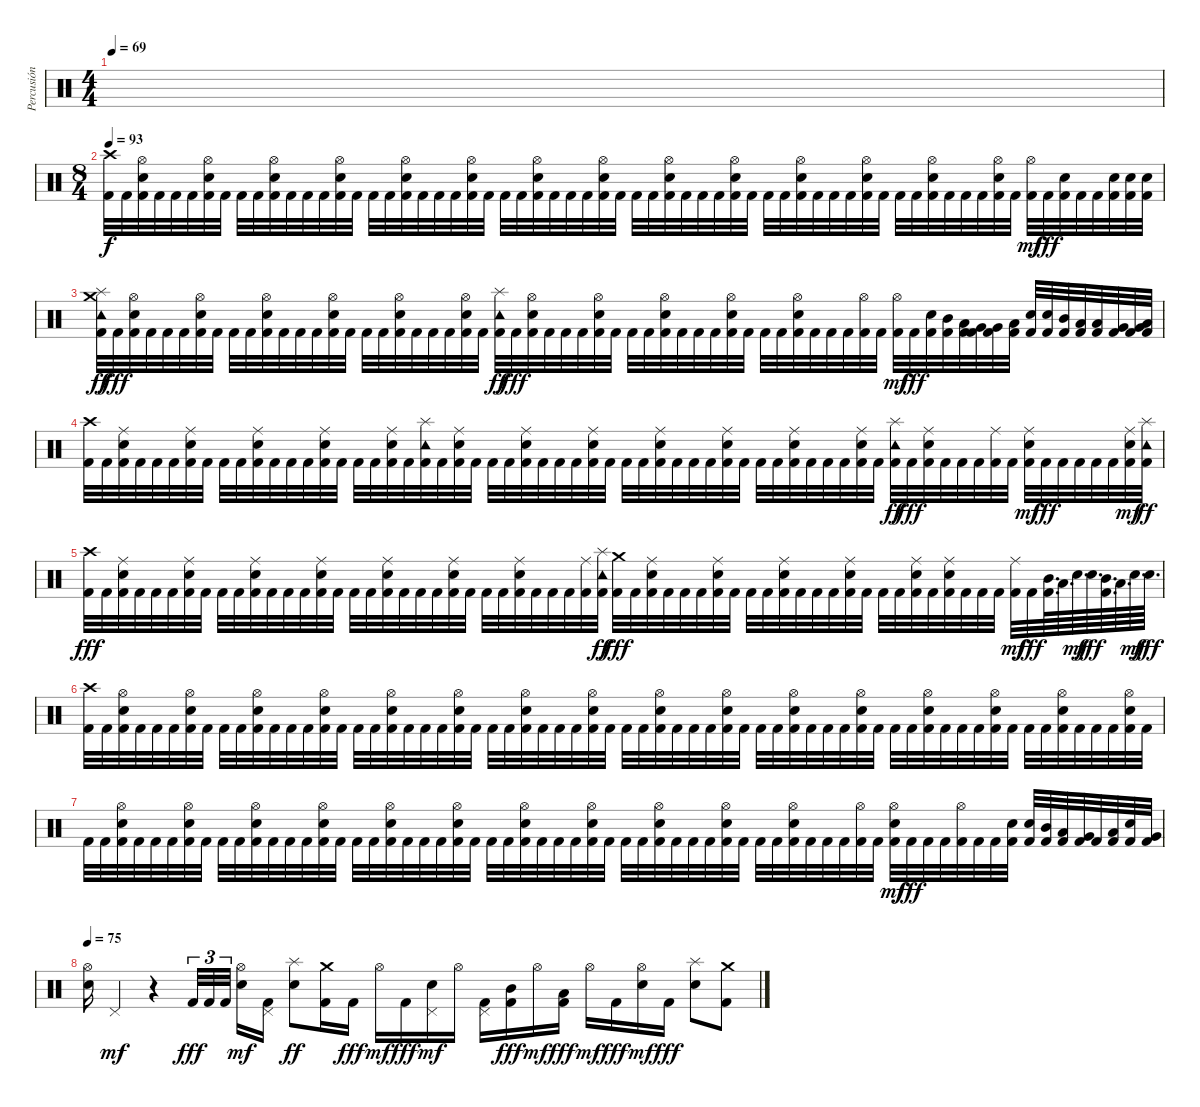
\track ("Percusión" "Percusión") {instrument percussion}
\staff {score}
\articulation defaults
\ts (4 4)
\tempo 69
\clef neutral
\ks c
|
\ts (8 4)
\tempo 93
("Kick (hit) 2" "Crash high (hit)").32 "Kick (hit) 2".32 ("Kick (hit) 2" "Electric Snare (hit)" "Hi-Hat (open)").32 "Kick (hit) 2".32 "Kick (hit) 2".32 "Kick (hit) 2".32 ("Kick (hit) 2" "Electric Snare (hit)" "Hi-Hat (open)").32 "Kick (hit) 2".32 "Kick (hit) 2".32 "Kick (hit) 2".32 ("Kick (hit) 2" "Electric Snare (hit)" "Hi-Hat (open)").32 "Kick (hit) 2".32 "Kick (hit) 2".32 "Kick (hit) 2".32 ("Kick (hit) 2" "Electric Snare (hit)" "Hi-Hat (open)").32 "Kick (hit) 2".32 "Kick (hit) 2".32 "Kick (hit) 2".32 ("Kick (hit) 2" "Electric Snare (hit)" "Hi-Hat (open)").32 "Kick (hit) 2".32 "Kick (hit) 2".32 "Kick (hit) 2".32 ("Kick (hit) 2" "Electric Snare (hit)" "Hi-Hat (open)").32 "Kick (hit) 2".32 "Kick (hit) 2".32 "Kick (hit) 2".32 ("Kick (hit) 2" "Electric Snare (hit)" "Hi-Hat (open)").32 "Kick (hit) 2".32 "Kick (hit) 2".32 "Kick (hit) 2".32 ("Kick (hit) 2" "Electric Snare (hit)" "Hi-Hat (open)").32 "Kick (hit) 2".32 "Kick (hit) 2".32 "Kick (hit) 2".32 ("Kick (hit) 2" "Electric Snare (hit)" "Hi-Hat (open)").32 "Kick (hit) 2".32 "Kick (hit) 2".32 "Kick (hit) 2".32 ("Kick (hit) 2" "Electric Snare (hit)" "Hi-Hat (open)").32 "Kick (hit) 2".32 "Kick (hit) 2".32 "Kick (hit) 2".32 ("Kick (hit) 2" "Electric Snare (hit)" "Hi-Hat (open)").32 "Kick (hit) 2".32 "Kick (hit) 2".32 "Kick (hit) 2".32 ("Kick (hit) 2" "Electric Snare (hit)" "Hi-Hat (open)").32 "Kick (hit) 2".32 "Kick (hit) 2".32 "Kick (hit) 2".32 ("Kick (hit) 2" "Electric Snare (hit)" "Hi-Hat (open)").32 "Kick (hit) 2".32 "Kick (hit) 2".32 "Kick (hit) 2".32 ("Kick (hit) 2" "Electric Snare (hit)" "Hi-Hat (open)").32 "Kick (hit) 2".32 ("Kick (hit) 2" "Hi-Hat (open)").32{dy mf} "Kick (hit) 2".32{dy fff} ("Kick (hit) 2" "Electric Snare (hit)").32 "Kick (hit) 2".32 "Kick (hit) 2".32 ("Kick (hit) 2" "Electric Snare (hit)").32 ("Kick (hit) 2" "Electric Snare (hit)").32 ("Kick (hit) 2" "Electric Snare (hit)").32 |
("Kick (hit) 2" "Crash medium (hit)" "Splash (hit)" "Tambourine (hit)").32{dy ff} "Kick (hit) 2".32{dy fff} ("Kick (hit) 2" "Electric Snare (hit)" "Hi-Hat (open)").32 "Kick (hit) 2".32 "Kick (hit) 2".32 "Kick (hit) 2".32 ("Kick (hit) 2" "Electric Snare (hit)" "Hi-Hat (open)").32 "Kick (hit) 2".32 "Kick (hit) 2".32 "Kick (hit) 2".32 ("Kick (hit) 2" "Electric Snare (hit)" "Hi-Hat (open)").32 "Kick (hit) 2".32 "Kick (hit) 2".32 "Kick (hit) 2".32 ("Kick (hit) 2" "Electric Snare (hit)" "Hi-Hat (open)").32 "Kick (hit) 2".32 "Kick (hit) 2".32 "Kick (hit) 2".32 ("Kick (hit) 2" "Electric Snare (hit)" "Hi-Hat (open)").32 "Kick (hit) 2".32 "Kick (hit) 2".32 "Kick (hit) 2".32 ("Kick (hit) 2" "Electric Snare (hit)" "Hi-Hat (open)").32 "Kick (hit) 2".32 ("Kick (hit) 2" "Splash (hit)" "Tambourine (hit)").32{dy ff} "Kick (hit) 2".32{dy fff} ("Kick (hit) 2" "Electric Snare (hit)" "Hi-Hat (open)").32 "Kick (hit) 2".32 "Kick (hit) 2".32 "Kick (hit) 2".32 ("Kick (hit) 2" "Electric Snare (hit)" "Hi-Hat (open)").32 "Kick (hit) 2".32 "Kick (hit) 2".32 "Kick (hit) 2".32 ("Kick (hit) 2" "Electric Snare (hit)" "Hi-Hat (open)").32 "Kick (hit) 2".32 "Kick (hit) 2".32 "Kick (hit) 2".32 ("Kick (hit) 2" "Electric Snare (hit)" "Hi-Hat (open)").32 "Kick (hit) 2".32 "Kick (hit) 2".32 "Kick (hit) 2".32 ("Kick (hit) 2" "Electric Snare (hit)" "Hi-Hat (open)").32 "Kick (hit) 2".32 "Kick (hit) 2".32 "Kick (hit) 2".32 ("Kick (hit) 2" "Hi-Hat (open)").32 "Kick (hit) 2".32 ("Kick (hit) 2" "Hi-Hat (open)").32{dy mf} "Kick (hit) 2".32{dy fff} ("Kick (hit) 2" "Electric Snare (hit)").32 ("Kick (hit) 2" "Mid Tom (hit)").32 ("Kick (hit) 2" "Low Tom (hit)").32 ("Kick (hit) 2" "Very Low Tom (hit)").32 ("Kick (hit) 2" "Very Low Tom (hit)").32 ("Kick (hit) 2" "Low Floor Tom (hit)").32 ("Kick (hit) 2" "Electric Snare (hit)").32 ("Kick (hit) 2" "Electric Snare (hit)").32 ("Kick (hit) 2" "Mid Tom (hit)").32 ("Kick (hit) 2" "Low Tom (hit)").32 ("Kick (hit) 2" "Low Tom (hit)").32 ("Kick (hit) 2" "Very Low Tom (hit)").32 ("Kick (hit) 2" "Very Low Tom (hit)").32 ("Kick (hit) 2" "Low Floor Tom (hit)").32 |
("Kick (hit) 2" "Crash high (hit)").32 "Kick (hit) 2".32 ("Kick (hit) 2" "Electric Snare (hit)" "Ride (middle)").32 "Kick (hit) 2".32 "Kick (hit) 2".32 "Kick (hit) 2".32 ("Kick (hit) 2" "Electric Snare (hit)" "Ride (middle)").32 "Kick (hit) 2".32 "Kick (hit) 2".32 "Kick (hit) 2".32 ("Kick (hit) 2" "Electric Snare (hit)" "Ride (middle)").32 "Kick (hit) 2".32 "Kick (hit) 2".32 "Kick (hit) 2".32 ("Kick (hit) 2" "Electric Snare (hit)" "Ride (middle)").32 "Kick (hit) 2".32 "Kick (hit) 2".32 "Kick (hit) 2".32 ("Kick (hit) 2" "Electric Snare (hit)" "Ride (middle)").32 "Kick (hit) 2".32 ("Kick (hit) 2" "Splash (hit)" "Tambourine (hit)").32 "Kick (hit) 2".32 ("Kick (hit) 2" "Electric Snare (hit)" "Ride (middle)").32 "Kick (hit) 2".32 "Kick (hit) 2".32 "Kick (hit) 2".32 ("Kick (hit) 2" "Electric Snare (hit)" "Ride (middle)").32 "Kick (hit) 2".32 "Kick (hit) 2".32 "Kick (hit) 2".32 ("Kick (hit) 2" "Electric Snare (hit)" "Ride (middle)").32 "Kick (hit) 2".32 "Kick (hit) 2".32 "Kick (hit) 2".32 ("Kick (hit) 2" "Electric Snare (hit)" "Ride (middle)").32 "Kick (hit) 2".32 "Kick (hit) 2".32 "Kick (hit) 2".32 ("Kick (hit) 2" "Electric Snare (hit)" "Ride (middle)").32 "Kick (hit) 2".32 "Kick (hit) 2".32 "Kick (hit) 2".32 ("Kick (hit) 2" "Electric Snare (hit)" "Ride (middle)").32 "Kick (hit) 2".32 "Kick (hit) 2".32 "Kick (hit) 2".32 ("Kick (hit) 2" "Electric Snare (hit)" "Ride (middle)").32 "Kick (hit) 2".32 ("Kick (hit) 2" "Splash (hit)" "Tambourine (hit)").32{dy ff} "Kick (hit) 2".32{dy fff} ("Kick (hit) 2" "Electric Snare (hit)" "Ride (middle)").32 "Kick (hit) 2".32 "Kick (hit) 2".32 "Kick (hit) 2".32 ("Kick (hit) 2" "Ride (middle)").32 "Kick (hit) 2".32 ("Kick (hit) 2" "Electric Snare (hit)" "Ride (middle)").32{dy mf} "Kick (hit) 2".32{dy fff} "Kick (hit) 2".32 "Kick (hit) 2".32 "Kick (hit) 2".32 "Kick (hit) 2".32 ("Kick (hit) 2" "Electric Snare (hit)" "Ride (middle)").32{dy mf} ("Kick (hit) 2" "Splash (hit)" "Tambourine (hit)").32{dy ff} |
("Kick (hit) 2" "Crash high (hit)").32{dy fff} "Kick (hit) 2".32 ("Kick (hit) 2" "Electric Snare (hit)" "Ride (middle)").32 "Kick (hit) 2".32 "Kick (hit) 2".32 "Kick (hit) 2".32 ("Kick (hit) 2" "Electric Snare (hit)" "Ride (middle)").32 "Kick (hit) 2".32 "Kick (hit) 2".32 "Kick (hit) 2".32 ("Kick (hit) 2" "Electric Snare (hit)" "Ride (middle)").32 "Kick (hit) 2".32 "Kick (hit) 2".32 "Kick (hit) 2".32 ("Kick (hit) 2" "Electric Snare (hit)" "Ride (middle)").32 "Kick (hit) 2".32 "Kick (hit) 2".32 "Kick (hit) 2".32 ("Kick (hit) 2" "Electric Snare (hit)" "Ride (middle)").32 "Kick (hit) 2".32 "Kick (hit) 2".32 "Kick (hit) 2".32 ("Kick (hit) 2" "Electric Snare (hit)" "Ride (middle)").32 "Kick (hit) 2".32 "Kick (hit) 2".32 "Kick (hit) 2".32 ("Kick (hit) 2" "Electric Snare (hit)" "Ride (middle)").32 "Kick (hit) 2".32 "Kick (hit) 2".32 "Kick (hit) 2".32 ("Kick (hit) 2" "Ride (middle)").32 ("Kick (hit) 2" "Splash (hit)" "Tambourine (hit)").32{dy ff} ("Kick (hit) 2" "Crash medium (hit)").32{dy fff} "Kick (hit) 2".32 ("Kick (hit) 2" "Electric Snare (hit)" "Ride (middle)").32 "Kick (hit) 2".32 "Kick (hit) 2".32 "Kick (hit) 2".32 ("Kick (hit) 2" "Electric Snare (hit)" "Ride (middle)").32 "Kick (hit) 2".32 "Kick (hit) 2".32 "Kick (hit) 2".32 ("Kick (hit) 2" "Electric Snare (hit)" "Ride (middle)").32 "Kick (hit) 2".32 "Kick (hit) 2".32 "Kick (hit) 2".32 ("Kick (hit) 2" "Electric Snare (hit)" "Ride (middle)").32 "Kick (hit) 2".32 "Kick (hit) 2".32 "Kick (hit) 2".32 ("Kick (hit) 2" "Electric Snare (hit)" "Ride (middle)").32 "Kick (hit) 2".32 ("Kick (hit) 2" "Electric Snare (hit)" "Ride (middle)").32 "Kick (hit) 2".32 "Kick (hit) 2".32 "Kick (hit) 2".32 ("Kick (hit) 2" "Ride (middle)").32{dy mf} "Kick (hit) 2".32{dy fff} ("Kick (hit) 2" "Mid Tom (hit)").64{d} "Low Tom (hit)".64{d} "Electric Snare (hit)".64{d dy mf} "Electric Snare (hit)".64{d dy fff} ("Kick (hit) 2" "Mid Tom (hit)").64{d} "Low Tom (hit)".64{d} "Electric Snare (hit)".64{d dy mf} "Electric Snare (hit)".64{d dy fff} |
("Kick (hit) 2" "Crash high (hit)").32 "Kick (hit) 2".32 ("Kick (hit) 2" "Electric Snare (hit)" "Hi-Hat (open)").32 "Kick (hit) 2".32 "Kick (hit) 2".32 "Kick (hit) 2".32 ("Kick (hit) 2" "Electric Snare (hit)" "Hi-Hat (open)").32 "Kick (hit) 2".32 "Kick (hit) 2".32 "Kick (hit) 2".32 ("Kick (hit) 2" "Electric Snare (hit)" "Hi-Hat (open)").32 "Kick (hit) 2".32 "Kick (hit) 2".32 "Kick (hit) 2".32 ("Kick (hit) 2" "Electric Snare (hit)" "Hi-Hat (open)").32 "Kick (hit) 2".32 "Kick (hit) 2".32 "Kick (hit) 2".32 ("Kick (hit) 2" "Electric Snare (hit)" "Hi-Hat (open)").32 "Kick (hit) 2".32 "Kick (hit) 2".32 "Kick (hit) 2".32 ("Kick (hit) 2" "Electric Snare (hit)" "Hi-Hat (open)").32 "Kick (hit) 2".32 "Kick (hit) 2".32 "Kick (hit) 2".32 ("Kick (hit) 2" "Electric Snare (hit)" "Hi-Hat (open)").32 "Kick (hit) 2".32 "Kick (hit) 2".32 "Kick (hit) 2".32 ("Kick (hit) 2" "Electric Snare (hit)" "Hi-Hat (open)").32 "Kick (hit) 2".32 "Kick (hit) 2".32 "Kick (hit) 2".32 ("Kick (hit) 2" "Electric Snare (hit)" "Hi-Hat (open)").32 "Kick (hit) 2".32 "Kick (hit) 2".32 "Kick (hit) 2".32 ("Kick (hit) 2" "Electric Snare (hit)" "Hi-Hat (open)").32 "Kick (hit) 2".32 "Kick (hit) 2".32 "Kick (hit) 2".32 ("Kick (hit) 2" "Electric Snare (hit)" "Hi-Hat (open)").32 "Kick (hit) 2".32 "Kick (hit) 2".32 "Kick (hit) 2".32 ("Kick (hit) 2" "Electric Snare (hit)" "Hi-Hat (open)").32 "Kick (hit) 2".32 "Kick (hit) 2".32 "Kick (hit) 2".32 ("Kick (hit) 2" "Electric Snare (hit)" "Hi-Hat (open)").32 "Kick (hit) 2".32 "Kick (hit) 2".32 "Kick (hit) 2".32 ("Kick (hit) 2" "Electric Snare (hit)" "Hi-Hat (open)").32 "Kick (hit) 2".32 "Kick (hit) 2".32 "Kick (hit) 2".32 ("Kick (hit) 2" "Electric Snare (hit)" "Hi-Hat (open)").32 "Kick (hit) 2".32 "Kick (hit) 2".32 "Kick (hit) 2".32 ("Kick (hit) 2" "Electric Snare (hit)" "Hi-Hat (open)").32 "Kick (hit) 2".32 |
"Kick (hit) 2".32 "Kick (hit) 2".32 ("Kick (hit) 2" "Electric Snare (hit)" "Hi-Hat (open)").32 "Kick (hit) 2".32 "Kick (hit) 2".32 "Kick (hit) 2".32 ("Kick (hit) 2" "Electric Snare (hit)" "Hi-Hat (open)").32 "Kick (hit) 2".32 "Kick (hit) 2".32 "Kick (hit) 2".32 ("Kick (hit) 2" "Electric Snare (hit)" "Hi-Hat (open)").32 "Kick (hit) 2".32 "Kick (hit) 2".32 "Kick (hit) 2".32 ("Kick (hit) 2" "Electric Snare (hit)" "Hi-Hat (open)").32 "Kick (hit) 2".32 "Kick (hit) 2".32 "Kick (hit) 2".32 ("Kick (hit) 2" "Electric Snare (hit)" "Hi-Hat (open)").32 "Kick (hit) 2".32 "Kick (hit) 2".32 "Kick (hit) 2".32 ("Kick (hit) 2" "Electric Snare (hit)" "Hi-Hat (open)").32 "Kick (hit) 2".32 "Kick (hit) 2".32 "Kick (hit) 2".32 ("Kick (hit) 2" "Electric Snare (hit)" "Hi-Hat (open)").32 "Kick (hit) 2".32 "Kick (hit) 2".32 "Kick (hit) 2".32 ("Kick (hit) 2" "Electric Snare (hit)" "Hi-Hat (open)").32 "Kick (hit) 2".32 "Kick (hit) 2".32 "Kick (hit) 2".32 ("Kick (hit) 2" "Electric Snare (hit)" "Hi-Hat (open)").32 "Kick (hit) 2".32 "Kick (hit) 2".32 "Kick (hit) 2".32 ("Kick (hit) 2" "Electric Snare (hit)" "Hi-Hat (open)").32 "Kick (hit) 2".32 "Kick (hit) 2".32 "Kick (hit) 2".32 ("Kick (hit) 2" "Electric Snare (hit)" "Hi-Hat (open)").32 "Kick (hit) 2".32 "Kick (hit) 2".32 "Kick (hit) 2".32 ("Kick (hit) 2" "Hi-Hat (open)").32 "Kick (hit) 2".32 ("Kick (hit) 2" "Electric Snare (hit)" "Hi-Hat (open)").32{dy mf} "Kick (hit) 2".32{dy fff} "Kick (hit) 2".32 "Kick (hit) 2".32 ("Kick (hit) 2" "Hi-Hat (open)").32 "Kick (hit) 2".32 "Kick (hit) 2".32 ("Kick (hit) 2" "Electric Snare (hit)").32 ("Kick (hit) 2" "Electric Snare (hit)").32 ("Kick (hit) 2" "Mid Tom (hit)").32 ("Kick (hit) 2" "Low Tom (hit)").32 ("Kick (hit) 2" "Very Low Tom (hit)").32 "Kick (hit) 2".32 ("Kick (hit) 2" "Low Tom (hit)").32 ("Kick (hit) 2" "Electric Snare (hit)").32 ("Kick (hit) 2" "Very Low Tom (hit)").32 |
\tempo 75
("Electric Snare (hit)" "Hi-Hat (open)").16 "Pedal Hi-Hat (hit)".4{dy mf} r.4 "Kick (hit) 2".32{tu (3 2) dy fff} "Kick (hit) 2".32{tu (3 2)} "Kick (hit) 2".32{tu (3 2) beam splitsecondary} ("Electric Snare (hit)" "Hi-Hat (open)").16{dy mf} ("Kick (hit) 2" "Pedal Hi-Hat (hit)").16 ("Electric Snare (hit)" "Splash (hit)").8{dy ff} ("Kick (hit) 2" "Crash medium (hit)").16 "Kick (hit) 2".16{dy fff} "Hi-Hat (open)".16{dy mf} "Kick (hit) 2".16{dy fff} ("Electric Snare (hit)" "Pedal Hi-Hat (hit)").16{dy mf} "Hi-Hat (open)".16 ("Kick (hit) 2" "Pedal Hi-Hat (hit)").16 ("Kick (hit) 2" "Mid Tom (hit)").16{dy fff} "Hi-Hat (open)".16{dy mf} ("Kick (hit) 2" "Low Tom (hit)").16{dy fff} "Hi-Hat (open)".16{dy mf} "Kick (hit) 2".16{dy fff} ("Electric Snare (hit)" "Hi-Hat (open)").16{dy mf} "Kick (hit) 2".16{dy fff} ("Electric Snare (hit)" "Splash (hit)").8 ("Kick (hit) 2" "Crash medium (hit)").8
